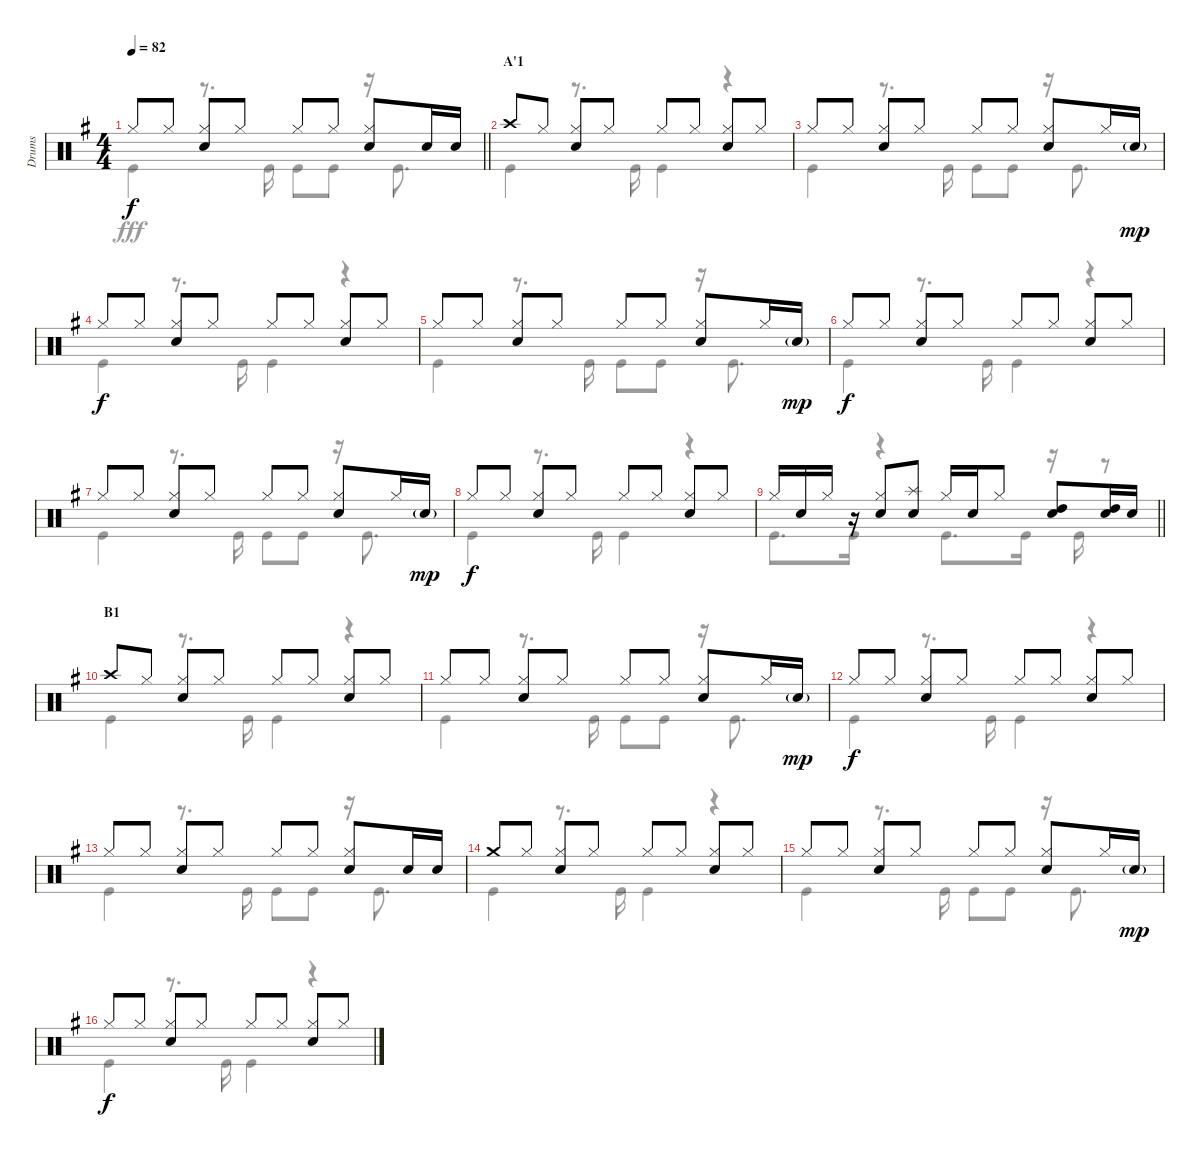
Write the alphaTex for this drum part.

\track ("Drums" "Drums") {instrument percussion}
\staff {score}
\articulation defaults
\voice
\ts (4 4)
\tempo 82
\clef neutral
\barLineRight lightlight
\ks g "Hi-Hat (closed)".8{dy f} "Hi-Hat (closed)".8
("Hi-Hat (closed)" "Snare (hit) 2").8 "Hi-Hat (closed)".8 "Hi-Hat (closed)".8 "Hi-Hat (closed)".8 ("Hi-Hat (closed)" "Snare (hit) 2").8 "Snare (hit) 2".16 "Snare (hit) 2".16 |
\section ("" "A'1")
"Crash high (hit)".8 "Hi-Hat (closed)".8 ("Hi-Hat (closed)" "Snare (hit) 2").8 "Hi-Hat (closed)".8 "Hi-Hat (closed)".8 "Hi-Hat (closed)".8 ("Hi-Hat (closed)" "Snare (hit) 2").8 "Hi-Hat (closed)".8 |
"Hi-Hat (closed)".8 "Hi-Hat (closed)".8 ("Hi-Hat (closed)" "Snare (hit) 2").8 "Hi-Hat (closed)".8 "Hi-Hat (closed)".8 "Hi-Hat (closed)".8 ("Hi-Hat (closed)" "Snare (hit) 2").8 "Hi-Hat (closed)".16 "Snare (hit) 2"{g}.16{dy mp} |
"Hi-Hat (closed)".8{dy f} "Hi-Hat (closed)".8 ("Hi-Hat (closed)" "Snare (hit) 2").8 "Hi-Hat (closed)".8 "Hi-Hat (closed)".8 "Hi-Hat (closed)".8 ("Hi-Hat (closed)" "Snare (hit) 2").8 "Hi-Hat (closed)".8 |
"Hi-Hat (closed)".8 "Hi-Hat (closed)".8 ("Hi-Hat (closed)" "Snare (hit) 2").8 "Hi-Hat (closed)".8 "Hi-Hat (closed)".8 "Hi-Hat (closed)".8 ("Hi-Hat (closed)" "Snare (hit) 2").8 "Hi-Hat (closed)".16 "Snare (hit) 2"{g}.16{dy mp} |
"Hi-Hat (closed)".8{dy f} "Hi-Hat (closed)".8 ("Hi-Hat (closed)" "Snare (hit) 2").8 "Hi-Hat (closed)".8 "Hi-Hat (closed)".8 "Hi-Hat (closed)".8 ("Hi-Hat (closed)" "Snare (hit) 2").8 "Hi-Hat (closed)".8 |
"Hi-Hat (closed)".8 "Hi-Hat (closed)".8 ("Hi-Hat (closed)" "Snare (hit) 2").8 "Hi-Hat (closed)".8 "Hi-Hat (closed)".8 "Hi-Hat (closed)".8 ("Hi-Hat (closed)" "Snare (hit) 2").8 "Hi-Hat (closed)".16 "Snare (hit) 2"{g}.16{dy mp} |
"Hi-Hat (closed)".8{dy f} "Hi-Hat (closed)".8 ("Hi-Hat (closed)" "Snare (hit) 2").8 "Hi-Hat (closed)".8 "Hi-Hat (closed)".8 "Hi-Hat (closed)".8 ("Hi-Hat (closed)" "Snare (hit) 2").8 "Hi-Hat (closed)".8 |
\barLineRight lightlight "Hi-Hat (closed)".16 "Snare (hit) 2".16 "Hi-Hat (closed)".16
r.16 ("Hi-Hat (closed)" "Snare (hit) 2").8 ("Splash (hit)" "Snare (hit) 2").8 "Hi-Hat (closed)".16 "Snare (hit) 2".16 "Hi-Hat (closed)".8 ("High Tom (hit)" "Snare (hit) 2").8 ("High Tom (hit)" "Snare (hit) 2").16 "Snare (hit) 2".16 |
\section ("" "B1")
"Crash high (hit)".8 "Hi-Hat (closed)".8 ("Hi-Hat (closed)" "Snare (hit) 2").8 "Hi-Hat (closed)".8 "Hi-Hat (closed)".8 "Hi-Hat (closed)".8 ("Hi-Hat (closed)" "Snare (hit) 2").8 "Hi-Hat (closed)".8 |
"Hi-Hat (closed)".8 "Hi-Hat (closed)".8 ("Hi-Hat (closed)" "Snare (hit) 2").8 "Hi-Hat (closed)".8 "Hi-Hat (closed)".8 "Hi-Hat (closed)".8 ("Hi-Hat (closed)" "Snare (hit) 2").8 "Hi-Hat (closed)".16 "Snare (hit) 2"{g}.16{dy mp} |
"Hi-Hat (closed)".8{dy f} "Hi-Hat (closed)".8 ("Hi-Hat (closed)" "Snare (hit) 2").8 "Hi-Hat (closed)".8 "Hi-Hat (closed)".8 "Hi-Hat (closed)".8 ("Hi-Hat (closed)" "Snare (hit) 2").8 "Hi-Hat (closed)".8 |
"Hi-Hat (closed)".8 "Hi-Hat (closed)".8 ("Hi-Hat (closed)" "Snare (hit) 2").8 "Hi-Hat (closed)".8 "Hi-Hat (closed)".8 "Hi-Hat (closed)".8 ("Hi-Hat (closed)" "Snare (hit) 2").8 "Snare (hit) 2".16 "Snare (hit) 2".16 |
"Crash medium (hit)".8 "Hi-Hat (closed)".8 ("Hi-Hat (closed)" "Snare (hit) 2").8 "Hi-Hat (closed)".8 "Hi-Hat (closed)".8 "Hi-Hat (closed)".8 ("Hi-Hat (closed)" "Snare (hit) 2").8 "Hi-Hat (closed)".8 |
"Hi-Hat (closed)".8 "Hi-Hat (closed)".8 ("Hi-Hat (closed)" "Snare (hit) 2").8 "Hi-Hat (closed)".8 "Hi-Hat (closed)".8 "Hi-Hat (closed)".8 ("Hi-Hat (closed)" "Snare (hit) 2").8 "Hi-Hat (closed)".16 "Snare (hit) 2"{g}.16{dy mp} |
"Hi-Hat (closed)".8{dy f} "Hi-Hat (closed)".8 ("Hi-Hat (closed)" "Snare (hit) 2").8 "Hi-Hat (closed)".8 "Hi-Hat (closed)".8 "Hi-Hat (closed)".8 ("Hi-Hat (closed)" "Snare (hit) 2").8 "Hi-Hat (closed)".8
\voice
\clef neutral
\ottava regular
\simile none
\barLineRight lightlight
\ks g "Kick (hit)".4{dy fff}
r.8{d} "Kick (hit)".16 "Kick (hit)".8 "Kick (hit)".8 r.16 "Kick (hit)".8{d} |
"Kick (hit)".4 r.8{d} "Kick (hit)".16 "Kick (hit)".4 r.4 |
"Kick (hit)".4 r.8{d} "Kick (hit)".16 "Kick (hit)".8 "Kick (hit)".8 r.16 "Kick (hit)".8{d} |
"Kick (hit)".4 r.8{d} "Kick (hit)".16 "Kick (hit)".4 r.4 |
"Kick (hit)".4 r.8{d} "Kick (hit)".16 "Kick (hit)".8 "Kick (hit)".8 r.16 "Kick (hit)".8{d} |
"Kick (hit)".4 r.8{d} "Kick (hit)".16 "Kick (hit)".4 r.4 |
"Kick (hit)".4 r.8{d} "Kick (hit)".16 "Kick (hit)".8 "Kick (hit)".8 r.16 "Kick (hit)".8{d} |
"Kick (hit)".4 r.8{d} "Kick (hit)".16 "Kick (hit)".4 r.4 |
\barLineRight lightlight "Kick (hit)".8{d} "Kick (hit)".16
r.4 "Kick (hit)".8{d} "Kick (hit)".16 r.16 "Kick (hit)".16 r.8 |
"Kick (hit)".4 r.8{d} "Kick (hit)".16 "Kick (hit)".4 r.4 |
"Kick (hit)".4 r.8{d} "Kick (hit)".16 "Kick (hit)".8 "Kick (hit)".8 r.16 "Kick (hit)".8{d} |
"Kick (hit)".4 r.8{d} "Kick (hit)".16 "Kick (hit)".4 r.4 |
"Kick (hit)".4 r.8{d} "Kick (hit)".16 "Kick (hit)".8 "Kick (hit)".8 r.16 "Kick (hit)".8{d} |
"Kick (hit)".4 r.8{d} "Kick (hit)".16 "Kick (hit)".4 r.4 |
"Kick (hit)".4 r.8{d} "Kick (hit)".16 "Kick (hit)".8 "Kick (hit)".8 r.16 "Kick (hit)".8{d} |
"Kick (hit)".4 r.8{d} "Kick (hit)".16 "Kick (hit)".4 r.4
